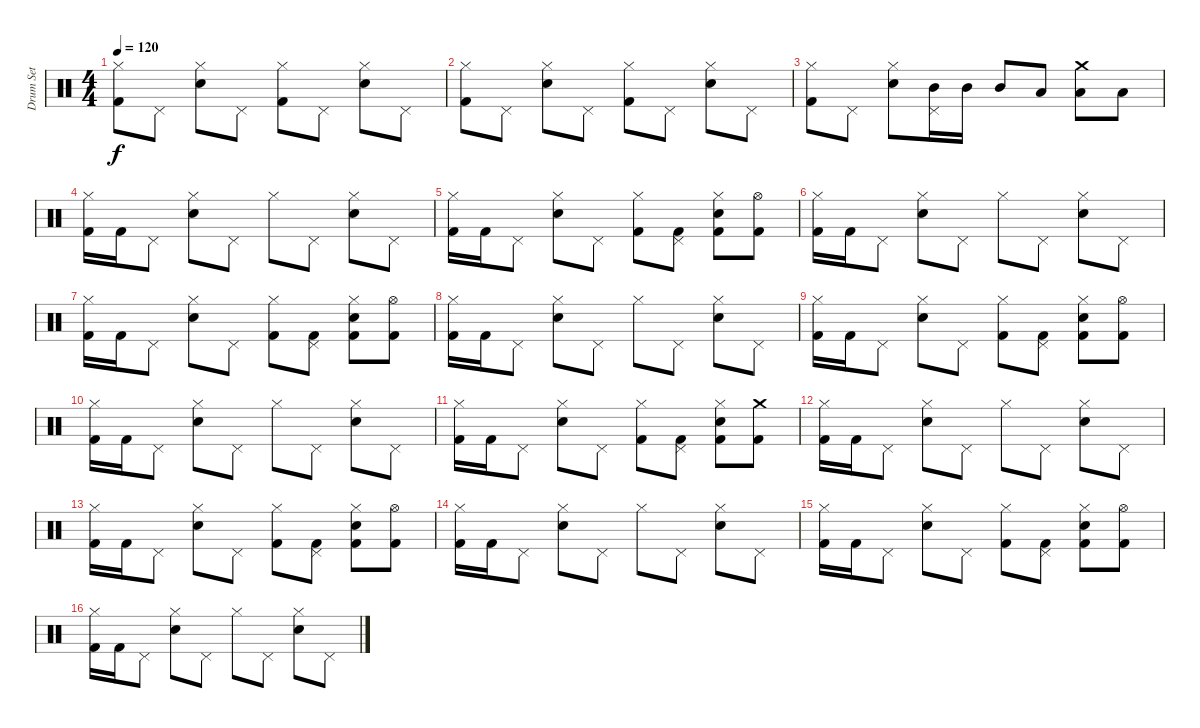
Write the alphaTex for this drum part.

\track ("Drum Set" "Drum Set") {instrument percussion}
\staff {score}
\articulation defaults
\ts (4 4)
\tempo 120
\clef neutral
\ks c
("Hi-Hat (closed)" "Kick (hit) 2").8{dy f} "Pedal Hi-Hat (hit)".8 ("Hi-Hat (closed)" "Snare (hit) 2").8 "Pedal Hi-Hat (hit)".8 ("Hi-Hat (closed)" "Kick (hit) 2").8 "Pedal Hi-Hat (hit)".8 ("Hi-Hat (closed)" "Snare (hit) 2").8 "Pedal Hi-Hat (hit)".8 |
("Hi-Hat (closed)" "Kick (hit) 2").8 "Pedal Hi-Hat (hit)".8 ("Hi-Hat (closed)" "Snare (hit) 2").8 "Pedal Hi-Hat (hit)".8 ("Hi-Hat (closed)" "Kick (hit) 2").8 "Pedal Hi-Hat (hit)".8 ("Hi-Hat (closed)" "Snare (hit) 2").8 "Pedal Hi-Hat (hit)".8 |
("Hi-Hat (closed)" "Kick (hit) 2").8 "Pedal Hi-Hat (hit)".8 ("Hi-Hat (closed)" "Snare (hit) 2").8 ("Pedal Hi-Hat (hit)" "Mid Tom (hit)").16 "Mid Tom (hit)".16 "Mid Tom (hit)".8 "Low Tom (hit)".8 ("Low Tom (hit)" "Crash medium (hit)").8 "Low Floor Tom (hit)".8 |
("Kick (hit) 2" "Hi-Hat (closed)").16 "Kick (hit) 2".16 "Pedal Hi-Hat (hit)".8 ("Hi-Hat (closed)" "Snare (hit) 2").8 "Pedal Hi-Hat (hit)".8 "Hi-Hat (closed)".8 "Pedal Hi-Hat (hit)".8 ("Hi-Hat (closed)" "Snare (hit) 2").8 "Pedal Hi-Hat (hit)".8 |
("Kick (hit) 2" "Hi-Hat (closed)").16 "Kick (hit) 2".16 "Pedal Hi-Hat (hit)".8 ("Hi-Hat (closed)" "Snare (hit) 2").8 "Pedal Hi-Hat (hit)".8 ("Hi-Hat (closed)" "Kick (hit) 2").8 ("Pedal Hi-Hat (hit)" "Kick (hit) 2").8 ("Hi-Hat (closed)" "Snare (hit) 2" "Kick (hit) 2").8 ("Hi-Hat (open)" "Kick (hit) 2").8 |
("Kick (hit) 2" "Hi-Hat (closed)").16 "Kick (hit) 2".16 "Pedal Hi-Hat (hit)".8 ("Hi-Hat (closed)" "Snare (hit) 2").8 "Pedal Hi-Hat (hit)".8 "Hi-Hat (closed)".8 "Pedal Hi-Hat (hit)".8 ("Hi-Hat (closed)" "Snare (hit) 2").8 "Pedal Hi-Hat (hit)".8 |
("Kick (hit) 2" "Hi-Hat (closed)").16 "Kick (hit) 2".16 "Pedal Hi-Hat (hit)".8 ("Hi-Hat (closed)" "Snare (hit) 2").8 "Pedal Hi-Hat (hit)".8 ("Hi-Hat (closed)" "Kick (hit) 2").8 ("Pedal Hi-Hat (hit)" "Kick (hit) 2").8 ("Hi-Hat (closed)" "Snare (hit) 2" "Kick (hit) 2").8 ("Hi-Hat (open)" "Kick (hit) 2").8 |
("Kick (hit) 2" "Hi-Hat (closed)").16 "Kick (hit) 2".16 "Pedal Hi-Hat (hit)".8 ("Hi-Hat (closed)" "Snare (hit) 2").8 "Pedal Hi-Hat (hit)".8 "Hi-Hat (closed)".8 "Pedal Hi-Hat (hit)".8 ("Hi-Hat (closed)" "Snare (hit) 2").8 "Pedal Hi-Hat (hit)".8 |
("Kick (hit) 2" "Hi-Hat (closed)").16 "Kick (hit) 2".16 "Pedal Hi-Hat (hit)".8 ("Hi-Hat (closed)" "Snare (hit) 2").8 "Pedal Hi-Hat (hit)".8 ("Hi-Hat (closed)" "Kick (hit) 2").8 ("Pedal Hi-Hat (hit)" "Kick (hit) 2").8 ("Hi-Hat (closed)" "Snare (hit) 2" "Kick (hit) 2").8 ("Hi-Hat (open)" "Kick (hit) 2").8 |
("Kick (hit) 2" "Hi-Hat (closed)").16 "Kick (hit) 2".16 "Pedal Hi-Hat (hit)".8 ("Hi-Hat (closed)" "Snare (hit) 2").8 "Pedal Hi-Hat (hit)".8 "Hi-Hat (closed)".8 "Pedal Hi-Hat (hit)".8 ("Hi-Hat (closed)" "Snare (hit) 2").8 "Pedal Hi-Hat (hit)".8 |
("Kick (hit) 2" "Hi-Hat (closed)").16 "Kick (hit) 2".16 "Pedal Hi-Hat (hit)".8 ("Hi-Hat (closed)" "Snare (hit) 2").8 "Pedal Hi-Hat (hit)".8 ("Hi-Hat (closed)" "Kick (hit) 2").8 ("Pedal Hi-Hat (hit)" "Kick (hit) 2").8 ("Hi-Hat (closed)" "Snare (hit) 2" "Kick (hit) 2").8 ("Crash medium (hit)" "Kick (hit) 2").8 |
("Kick (hit) 2" "Hi-Hat (closed)").16 "Kick (hit) 2".16 "Pedal Hi-Hat (hit)".8 ("Hi-Hat (closed)" "Snare (hit) 2").8 "Pedal Hi-Hat (hit)".8 "Hi-Hat (closed)".8 "Pedal Hi-Hat (hit)".8 ("Hi-Hat (closed)" "Snare (hit) 2").8 "Pedal Hi-Hat (hit)".8 |
("Kick (hit) 2" "Hi-Hat (closed)").16 "Kick (hit) 2".16 "Pedal Hi-Hat (hit)".8 ("Hi-Hat (closed)" "Snare (hit) 2").8 "Pedal Hi-Hat (hit)".8 ("Hi-Hat (closed)" "Kick (hit) 2").8 ("Pedal Hi-Hat (hit)" "Kick (hit) 2").8 ("Hi-Hat (closed)" "Snare (hit) 2" "Kick (hit) 2").8 ("Hi-Hat (open)" "Kick (hit) 2").8 |
("Kick (hit) 2" "Hi-Hat (closed)").16 "Kick (hit) 2".16 "Pedal Hi-Hat (hit)".8 ("Hi-Hat (closed)" "Snare (hit) 2").8 "Pedal Hi-Hat (hit)".8 "Hi-Hat (closed)".8 "Pedal Hi-Hat (hit)".8 ("Hi-Hat (closed)" "Snare (hit) 2").8 "Pedal Hi-Hat (hit)".8 |
("Kick (hit) 2" "Hi-Hat (closed)").16 "Kick (hit) 2".16 "Pedal Hi-Hat (hit)".8 ("Hi-Hat (closed)" "Snare (hit) 2").8 "Pedal Hi-Hat (hit)".8 ("Hi-Hat (closed)" "Kick (hit) 2").8 ("Pedal Hi-Hat (hit)" "Kick (hit) 2").8 ("Hi-Hat (closed)" "Snare (hit) 2" "Kick (hit) 2").8 ("Hi-Hat (open)" "Kick (hit) 2").8 |
("Kick (hit) 2" "Hi-Hat (closed)").16 "Kick (hit) 2".16 "Pedal Hi-Hat (hit)".8 ("Hi-Hat (closed)" "Snare (hit) 2").8 "Pedal Hi-Hat (hit)".8 "Hi-Hat (closed)".8 "Pedal Hi-Hat (hit)".8 ("Hi-Hat (closed)" "Snare (hit) 2").8 "Pedal Hi-Hat (hit)".8
